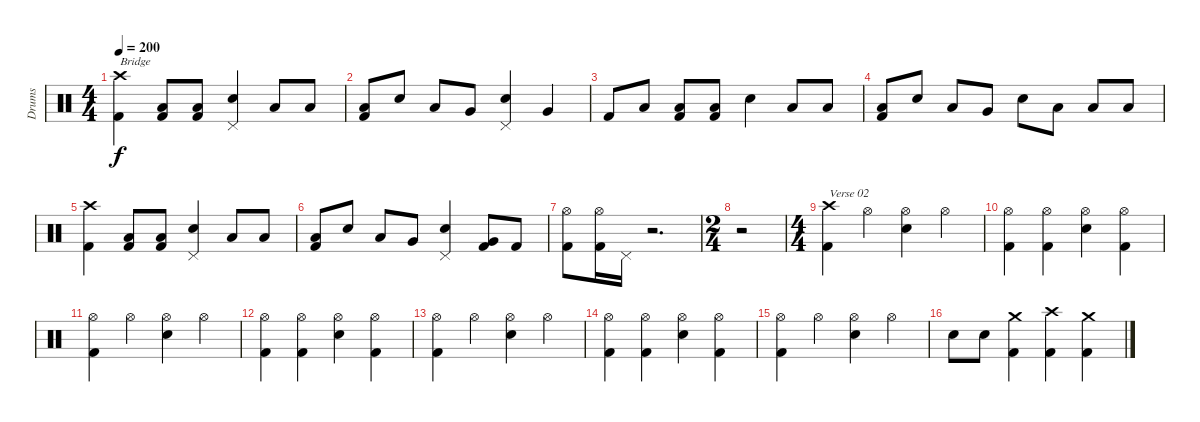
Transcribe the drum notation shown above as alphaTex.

\track ("Drums" "Drums") {instrument percussion}
\staff {score}
\articulation defaults
\ts (4 4)
\tempo 200
\clef neutral
\ks c
("Crash high (hit)" "Kick (hit) 2").4{txt "Bridge" dy f} ("Low Floor Tom (hit)" "Kick (hit) 2").8 ("Low Floor Tom (hit)" "Kick (hit) 2").8 ("Pedal Hi-Hat (hit)" "Electric Snare (hit)").4 "Low Tom (hit)".8 "Low Floor Tom (hit)".8 |
("Low Floor Tom (hit)" "Kick (hit) 2").8 "Electric Snare (hit)".8 "Low Tom (hit)".8 "Very Low Tom (hit)".8 ("Pedal Hi-Hat (hit)" "Electric Snare (hit)").4 "Very Low Tom (hit)".4 |
"Kick (hit) 2".8 "Low Floor Tom (hit)".8 ("Low Floor Tom (hit)" "Kick (hit) 2").8 ("Low Floor Tom (hit)" "Kick (hit) 2").8 "Electric Snare (hit)".4 "Low Tom (hit)".8 "Low Floor Tom (hit)".8 |
("Low Floor Tom (hit)" "Kick (hit) 2").8 "Electric Snare (hit)".8 "Low Tom (hit)".8 "Very Low Tom (hit)".8 "Electric Snare (hit)".8 "Low Floor Tom (hit)".8 "Low Floor Tom (hit)".8 "Low Floor Tom (hit)".8 |
("Crash high (hit)" "Kick (hit) 2").4 ("Low Floor Tom (hit)" "Kick (hit) 2").8 ("Low Floor Tom (hit)" "Kick (hit) 2").8 ("Pedal Hi-Hat (hit)" "Electric Snare (hit)").4 "Low Tom (hit)".8 "Low Floor Tom (hit)".8 |
("Low Floor Tom (hit)" "Kick (hit) 2").8 "Electric Snare (hit)".8 "Low Tom (hit)".8 "Very Low Tom (hit)".8 ("Pedal Hi-Hat (hit)" "Electric Snare (hit)").4 ("Very Low Tom (hit)" "Kick (hit) 2").8 "Kick (hit) 2".8 |
("Hi-Hat (open)" "Kick (hit) 2").8 ("Hi-Hat (open)" "Kick (hit) 2").16 "Pedal Hi-Hat (hit)".16 r.2{d} |
\ts (2 4)
r.2 |
\ts (4 4)
("Crash high (hit)" "Kick (hit) 2").4{txt "Verse 02"} "Hi-Hat (open)".4 ("Hi-Hat (open)" "Electric Snare (hit)").4 "Hi-Hat (open)".4 |
("Hi-Hat (open)" "Kick (hit) 2").4 ("Hi-Hat (open)" "Kick (hit) 2").4 ("Hi-Hat (open)" "Electric Snare (hit)").4 ("Hi-Hat (open)" "Kick (hit) 2").4 |
("Hi-Hat (open)" "Kick (hit) 2").4 "Hi-Hat (open)".4 ("Hi-Hat (open)" "Electric Snare (hit)").4 "Hi-Hat (open)".4 |
("Hi-Hat (open)" "Kick (hit) 2").4 ("Hi-Hat (open)" "Kick (hit) 2").4 ("Hi-Hat (open)" "Electric Snare (hit)").4 ("Hi-Hat (open)" "Kick (hit) 2").4 |
("Hi-Hat (open)" "Kick (hit) 2").4 "Hi-Hat (open)".4 ("Hi-Hat (open)" "Electric Snare (hit)").4 "Hi-Hat (open)".4 |
("Hi-Hat (open)" "Kick (hit) 2").4 ("Hi-Hat (open)" "Kick (hit) 2").4 ("Hi-Hat (open)" "Electric Snare (hit)").4 ("Hi-Hat (open)" "Kick (hit) 2").4 |
("Hi-Hat (open)" "Kick (hit) 2").4 "Hi-Hat (open)".4 ("Hi-Hat (open)" "Electric Snare (hit)").4 "Hi-Hat (open)".4 |
"Electric Snare (hit)".8 "Electric Snare (hit)".8 ("Crash medium (hit)" "Kick (hit) 2").4 ("Crash high (hit)" "Kick (hit) 2").4 ("Crash medium (hit)" "Kick (hit) 2").4
